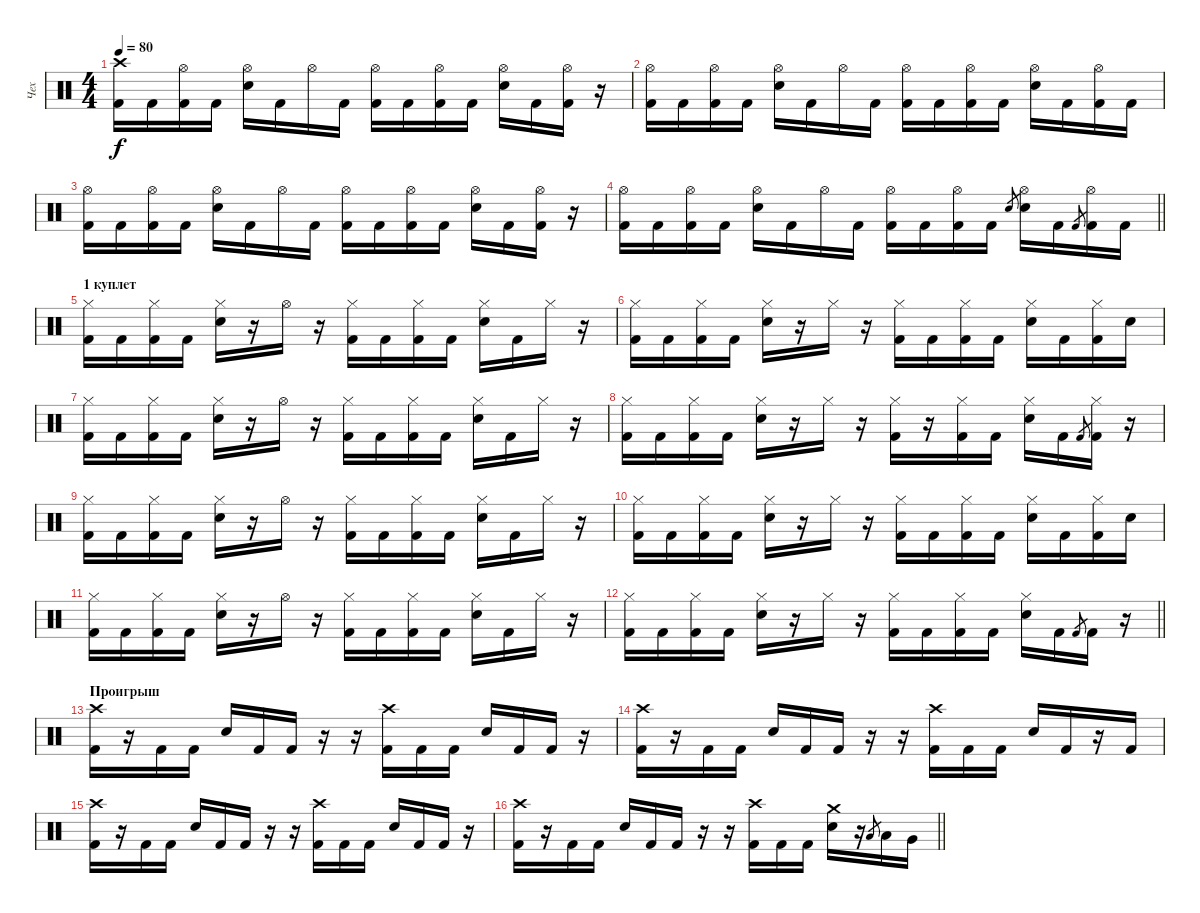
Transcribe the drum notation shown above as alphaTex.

\track ("Чех" "Чех") {instrument percussion}
\staff {score}
\articulation defaults
\ts (4 4)
\tempo 80
\clef neutral
\ks c
("Crash high (hit)" "Kick (hit) 2").16{dy f} "Kick (hit) 2".16 ("Hi-Hat (open)" "Kick (hit) 2").16 "Kick (hit) 2".16 ("Hi-Hat (open)" "Snare (hit) 2").16 "Kick (hit) 2".16 "Hi-Hat (open)".16 "Kick (hit) 2".16 ("Hi-Hat (open)" "Kick (hit) 2").16 "Kick (hit) 2".16 ("Hi-Hat (open)" "Kick (hit) 2").16 "Kick (hit) 2".16 ("Hi-Hat (open)" "Snare (hit) 2").16 "Kick (hit) 2".16 ("Hi-Hat (open)" "Kick (hit) 2").16 r.16 |
("Hi-Hat (open)" "Kick (hit) 2").16 "Kick (hit) 2".16 ("Hi-Hat (open)" "Kick (hit) 2").16 "Kick (hit) 2".16 ("Hi-Hat (open)" "Snare (hit) 2").16 "Kick (hit) 2".16 "Hi-Hat (open)".16 "Kick (hit) 2".16 ("Hi-Hat (open)" "Kick (hit) 2").16 "Kick (hit) 2".16 ("Hi-Hat (open)" "Kick (hit) 2").16 "Kick (hit) 2".16 ("Hi-Hat (open)" "Snare (hit) 2").16 "Kick (hit) 2".16 ("Hi-Hat (open)" "Kick (hit) 2").16 "Kick (hit) 2".16 |
("Hi-Hat (open)" "Kick (hit) 2").16 "Kick (hit) 2".16 ("Hi-Hat (open)" "Kick (hit) 2").16 "Kick (hit) 2".16 ("Hi-Hat (open)" "Snare (hit) 2").16 "Kick (hit) 2".16 "Hi-Hat (open)".16 "Kick (hit) 2".16 ("Hi-Hat (open)" "Kick (hit) 2").16 "Kick (hit) 2".16 ("Hi-Hat (open)" "Kick (hit) 2").16 "Kick (hit) 2".16 ("Hi-Hat (open)" "Snare (hit) 2").16 "Kick (hit) 2".16 ("Hi-Hat (open)" "Kick (hit) 2").16 r.16 |
\barLineRight lightlight
("Hi-Hat (open)" "Kick (hit) 2").16 "Kick (hit) 2".16 ("Hi-Hat (open)" "Kick (hit) 2").16 "Kick (hit) 2".16 ("Hi-Hat (open)" "Snare (hit) 2").16 "Kick (hit) 2".16 "Hi-Hat (open)".16 "Kick (hit) 2".16 ("Hi-Hat (open)" "Kick (hit) 2").16 "Kick (hit) 2".16 ("Hi-Hat (open)" "Kick (hit) 2").16 "Kick (hit) 2".16 "Snare (hit) 2".8{gr} ("Hi-Hat (open)" "Snare (hit) 2").16 "Kick (hit) 2".16 "Kick (hit) 2".8{gr} ("Hi-Hat (open)" "Kick (hit) 2").16 "Kick (hit) 2".16 |
\section ("" "1 куплет")
("Hi-Hat (closed)" "Kick (hit) 2").16 "Kick (hit) 2".16 ("Hi-Hat (closed)" "Kick (hit) 2").16 "Kick (hit) 2".16 ("Hi-Hat (closed)" "Snare (hit) 2").16 r.16 "Hi-Hat (open)".16 r.16 ("Hi-Hat (closed)" "Kick (hit) 2").16 "Kick (hit) 2".16 ("Hi-Hat (closed)" "Kick (hit) 2").16 "Kick (hit) 2".16 ("Hi-Hat (closed)" "Snare (hit) 2").16 "Kick (hit) 2".16 "Hi-Hat (closed)".16 r.16 |
("Hi-Hat (closed)" "Kick (hit) 2").16 "Kick (hit) 2".16 ("Hi-Hat (closed)" "Kick (hit) 2").16 "Kick (hit) 2".16 ("Hi-Hat (closed)" "Snare (hit) 2").16 r.16 "Hi-Hat (closed)".16 r.16 ("Hi-Hat (closed)" "Kick (hit) 2").16 "Kick (hit) 2".16 ("Hi-Hat (closed)" "Kick (hit) 2").16 "Kick (hit) 2".16 ("Hi-Hat (closed)" "Snare (hit) 2").16 "Kick (hit) 2".16 ("Hi-Hat (closed)" "Kick (hit) 2").16 "Snare (hit) 2".16 |
("Hi-Hat (closed)" "Kick (hit) 2").16 "Kick (hit) 2".16 ("Hi-Hat (closed)" "Kick (hit) 2").16 "Kick (hit) 2".16 ("Hi-Hat (closed)" "Snare (hit) 2").16 r.16 "Hi-Hat (open)".16 r.16 ("Hi-Hat (closed)" "Kick (hit) 2").16 "Kick (hit) 2".16 ("Hi-Hat (closed)" "Kick (hit) 2").16 "Kick (hit) 2".16 ("Hi-Hat (closed)" "Snare (hit) 2").16 "Kick (hit) 2".16 "Hi-Hat (closed)".16 r.16 |
("Hi-Hat (closed)" "Kick (hit) 2").16 "Kick (hit) 2".16 ("Hi-Hat (closed)" "Kick (hit) 2").16 "Kick (hit) 2".16 ("Hi-Hat (closed)" "Snare (hit) 2").16 r.16 "Hi-Hat (closed)".16 r.16 ("Hi-Hat (closed)" "Kick (hit) 2").16 r.16 ("Hi-Hat (closed)" "Kick (hit) 2").16 "Kick (hit) 2".16 ("Hi-Hat (closed)" "Snare (hit) 2").16 "Kick (hit) 2".16 "Kick (hit) 2".8{gr} ("Hi-Hat (closed)" "Kick (hit) 2").16 r.16 |
("Hi-Hat (closed)" "Kick (hit) 2").16 "Kick (hit) 2".16 ("Hi-Hat (closed)" "Kick (hit) 2").16 "Kick (hit) 2".16 ("Hi-Hat (closed)" "Snare (hit) 2").16 r.16 "Hi-Hat (open)".16 r.16 ("Hi-Hat (closed)" "Kick (hit) 2").16 "Kick (hit) 2".16 ("Hi-Hat (closed)" "Kick (hit) 2").16 "Kick (hit) 2".16 ("Hi-Hat (closed)" "Snare (hit) 2").16 "Kick (hit) 2".16 "Hi-Hat (closed)".16 r.16 |
("Hi-Hat (closed)" "Kick (hit) 2").16 "Kick (hit) 2".16 ("Hi-Hat (closed)" "Kick (hit) 2").16 "Kick (hit) 2".16 ("Hi-Hat (closed)" "Snare (hit) 2").16 r.16 "Hi-Hat (closed)".16 r.16 ("Hi-Hat (closed)" "Kick (hit) 2").16 "Kick (hit) 2".16 ("Hi-Hat (closed)" "Kick (hit) 2").16 "Kick (hit) 2".16 ("Hi-Hat (closed)" "Snare (hit) 2").16 "Kick (hit) 2".16 ("Hi-Hat (closed)" "Kick (hit) 2").16 "Snare (hit) 2".16 |
("Hi-Hat (closed)" "Kick (hit) 2").16 "Kick (hit) 2".16 ("Hi-Hat (closed)" "Kick (hit) 2").16 "Kick (hit) 2".16 ("Hi-Hat (closed)" "Snare (hit) 2").16 r.16 "Hi-Hat (open)".16 r.16 ("Hi-Hat (closed)" "Kick (hit) 2").16 "Kick (hit) 2".16 ("Hi-Hat (closed)" "Kick (hit) 2").16 "Kick (hit) 2".16 ("Hi-Hat (closed)" "Snare (hit) 2").16 "Kick (hit) 2".16 "Hi-Hat (closed)".16 r.16 |
\barLineRight lightlight
("Hi-Hat (closed)" "Kick (hit) 2").16 "Kick (hit) 2".16 ("Hi-Hat (closed)" "Kick (hit) 2").16 "Kick (hit) 2".16 ("Hi-Hat (closed)" "Snare (hit) 2").16 r.16 "Hi-Hat (closed)".16 r.16 ("Hi-Hat (closed)" "Kick (hit) 2").16 "Kick (hit) 2".16 ("Hi-Hat (closed)" "Kick (hit) 2").16 "Kick (hit) 2".16 ("Hi-Hat (closed)" "Snare (hit) 2").16 "Kick (hit) 2".16 "Kick (hit) 2".8{gr} "Kick (hit) 2".16 r.16 |
\section ("" "Проигрыш")
("Crash high (hit)" "Kick (hit) 2").16 r.16 "Kick (hit) 2".16 "Kick (hit) 2".16 "Snare (hit) 2".16 "Kick (hit) 2".16 "Kick (hit) 2".16 r.16 r.16 ("Crash high (hit)" "Kick (hit) 2").16 "Kick (hit) 2".16 "Kick (hit) 2".16 "Snare (hit) 2".16 "Kick (hit) 2".16 "Kick (hit) 2".16 r.16 |
("Crash high (hit)" "Kick (hit) 2").16 r.16 "Kick (hit) 2".16 "Kick (hit) 2".16 "Snare (hit) 2".16 "Kick (hit) 2".16 "Kick (hit) 2".16 r.16 r.16 ("Crash high (hit)" "Kick (hit) 2").16 "Kick (hit) 2".16 "Kick (hit) 2".16 "Snare (hit) 2".16 "Kick (hit) 2".16 r.16 "Kick (hit) 2".16 |
("Crash high (hit)" "Kick (hit) 2").16 r.16 "Kick (hit) 2".16 "Kick (hit) 2".16 "Snare (hit) 2".16 "Kick (hit) 2".16 "Kick (hit) 2".16 r.16 r.16 ("Crash high (hit)" "Kick (hit) 2").16 "Kick (hit) 2".16 "Kick (hit) 2".16 "Snare (hit) 2".16 "Kick (hit) 2".16 "Kick (hit) 2".16 r.16 |
\barLineRight lightlight
("Crash high (hit)" "Kick (hit) 2").16 r.16 "Kick (hit) 2".16 "Kick (hit) 2".16 "Snare (hit) 2".16 "Kick (hit) 2".16 "Kick (hit) 2".16 r.16 r.16 ("Crash high (hit)" "Kick (hit) 2").16 "Kick (hit) 2".16 "Kick (hit) 2".16 ("Crash medium (hit)" "Snare (hit) 2").16 r.16 "Low Tom (hit)".8{gr} "Low Tom (hit)".16 "Very Low Tom (hit)".16
